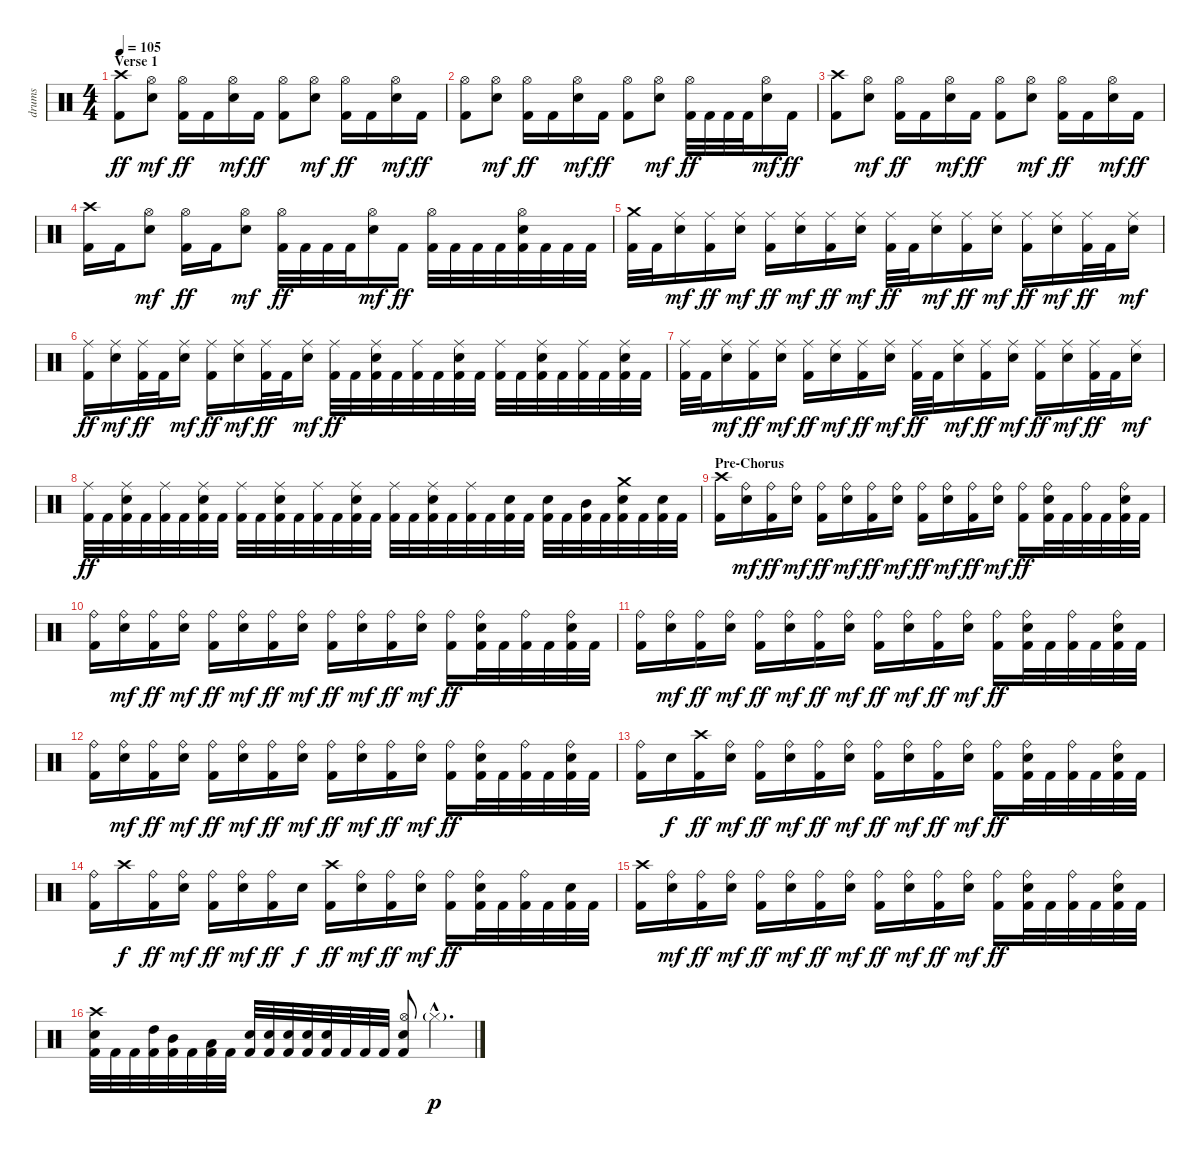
\track ("drums" "drums") {instrument percussion}
\staff {score}
\articulation defaults
\ts (4 4)
\section ("" "Verse 1")
\tempo 105
\clef neutral
\ks c
("Crash high (hit)" "Kick (hit) 2").8{dy ff} ("Hi-Hat (open)" "Snare (hit) 2").8{dy mf} ("Hi-Hat (open)" "Kick (hit) 2").16{dy ff} "Kick (hit) 2".16 ("Hi-Hat (open)" "Snare (hit) 2").16{dy mf} "Kick (hit) 2".16{dy ff} ("Hi-Hat (open)" "Kick (hit) 2").8 ("Hi-Hat (open)" "Snare (hit) 2").8{dy mf} ("Hi-Hat (open)" "Kick (hit) 2").16{dy ff} "Kick (hit) 2".16 ("Hi-Hat (open)" "Snare (hit) 2").16{dy mf} "Kick (hit) 2".16{dy ff} |
("Hi-Hat (open)" "Kick (hit) 2").8 ("Hi-Hat (open)" "Snare (hit) 2").8{dy mf} ("Hi-Hat (open)" "Kick (hit) 2").16{dy ff} "Kick (hit) 2".16 ("Hi-Hat (open)" "Snare (hit) 2").16{dy mf} "Kick (hit) 2".16{dy ff} ("Hi-Hat (open)" "Kick (hit) 2").8 ("Hi-Hat (open)" "Snare (hit) 2").8{dy mf} ("Hi-Hat (open)" "Kick (hit) 2").32{dy ff} "Kick (hit) 2".32 "Kick (hit) 2".32 "Kick (hit) 2".32 ("Hi-Hat (open)" "Snare (hit) 2").16{dy mf} "Kick (hit) 2".16{dy ff} |
("Crash high (hit)" "Kick (hit) 2").8 ("Hi-Hat (open)" "Snare (hit) 2").8{dy mf} ("Hi-Hat (open)" "Kick (hit) 2").16{dy ff} "Kick (hit) 2".16 ("Hi-Hat (open)" "Snare (hit) 2").16{dy mf} "Kick (hit) 2".16{dy ff} ("Hi-Hat (open)" "Kick (hit) 2").8 ("Hi-Hat (open)" "Snare (hit) 2").8{dy mf} ("Hi-Hat (open)" "Kick (hit) 2").16{dy ff} "Kick (hit) 2".16 ("Hi-Hat (open)" "Snare (hit) 2").16{dy mf} "Kick (hit) 2".16{dy ff} |
("Crash high (hit)" "Kick (hit) 2").16 "Kick (hit) 2".16 ("Hi-Hat (open)" "Snare (hit) 2").8{dy mf} ("Hi-Hat (open)" "Kick (hit) 2").16{dy ff} "Kick (hit) 2".16 ("Hi-Hat (open)" "Snare (hit) 2").8{dy mf} ("Hi-Hat (open)" "Kick (hit) 2").32{dy ff} "Kick (hit) 2".32 "Kick (hit) 2".32 "Kick (hit) 2".32 ("Hi-Hat (open)" "Snare (hit) 2").16{dy mf} "Kick (hit) 2".16{dy ff} ("Hi-Hat (open)" "Kick (hit) 2").32 "Kick (hit) 2".32 "Kick (hit) 2".32 "Kick (hit) 2".32 ("Hi-Hat (open)" "Snare (hit) 2" "Kick (hit) 2").32 "Kick (hit) 2".32 "Kick (hit) 2".32 "Kick (hit) 2".32 |
\section ("" "")
("Crash medium (hit)" "Kick (hit) 2").32 "Kick (hit) 2".32 ("Ride (middle)" "Snare (hit) 2").16{dy mf} ("Ride (middle)" "Kick (hit) 2").16{dy ff} ("Ride (middle)" "Snare (hit) 2").16{dy mf} ("Ride (middle)" "Kick (hit) 2").16{dy ff} ("Ride (middle)" "Snare (hit) 2").16{dy mf} ("Ride (middle)" "Kick (hit) 2").16{dy ff} ("Ride (middle)" "Snare (hit) 2").16{dy mf} ("Ride (middle)" "Kick (hit) 2").32{dy ff} "Kick (hit) 2".32 ("Ride (middle)" "Snare (hit) 2").16{dy mf} ("Ride (middle)" "Kick (hit) 2").16{dy ff} ("Ride (middle)" "Snare (hit) 2").16{dy mf} ("Ride (middle)" "Kick (hit) 2").16{dy ff} ("Ride (middle)" "Snare (hit) 2").16{dy mf} ("Ride (middle)" "Kick (hit) 2").32{dy ff} "Kick (hit) 2".32 ("Ride (middle)" "Snare (hit) 2").16{dy mf} |
("Ride (middle)" "Kick (hit) 2").16{dy ff} ("Ride (middle)" "Snare (hit) 2").16{dy mf} ("Ride (middle)" "Kick (hit) 2").32{dy ff} "Kick (hit) 2".32 ("Ride (middle)" "Snare (hit) 2").16{dy mf} ("Ride (middle)" "Kick (hit) 2").16{dy ff} ("Ride (middle)" "Snare (hit) 2").16{dy mf} ("Ride (middle)" "Kick (hit) 2").32{dy ff} "Kick (hit) 2".32 ("Ride (middle)" "Snare (hit) 2").16{dy mf} ("Ride (middle)" "Kick (hit) 2").32{dy ff} "Kick (hit) 2".32 ("Ride (middle)" "Snare (hit) 2" "Kick (hit) 2").32 "Kick (hit) 2".32 ("Ride (middle)" "Kick (hit) 2").32 "Kick (hit) 2".32 ("Ride (middle)" "Snare (hit) 2" "Kick (hit) 2").32 "Kick (hit) 2".32 ("Ride (middle)" "Kick (hit) 2").32 "Kick (hit) 2".32 ("Ride (middle)" "Snare (hit) 2" "Kick (hit) 2").32 "Kick (hit) 2".32 ("Ride (middle)" "Kick (hit) 2").32 "Kick (hit) 2".32 ("Ride (middle)" "Snare (hit) 2" "Kick (hit) 2").32 "Kick (hit) 2".32 |
("Ride (middle)" "Kick (hit) 2").32 "Kick (hit) 2".32 ("Ride (middle)" "Snare (hit) 2").16{dy mf} ("Ride (middle)" "Kick (hit) 2").16{dy ff} ("Ride (middle)" "Snare (hit) 2").16{dy mf} ("Ride (middle)" "Kick (hit) 2").16{dy ff} ("Ride (middle)" "Snare (hit) 2").16{dy mf} ("Ride (middle)" "Kick (hit) 2").16{dy ff} ("Ride (middle)" "Snare (hit) 2").16{dy mf} ("Ride (middle)" "Kick (hit) 2").32{dy ff} "Kick (hit) 2".32 ("Ride (middle)" "Snare (hit) 2").16{dy mf} ("Ride (middle)" "Kick (hit) 2").16{dy ff} ("Ride (middle)" "Snare (hit) 2").16{dy mf} ("Ride (middle)" "Kick (hit) 2").16{dy ff} ("Ride (middle)" "Snare (hit) 2").16{dy mf} ("Ride (middle)" "Kick (hit) 2").32{dy ff} "Kick (hit) 2".32 ("Ride (middle)" "Snare (hit) 2").16{dy mf} |
("Ride (middle)" "Kick (hit) 2").32{dy ff} "Kick (hit) 2".32 ("Ride (middle)" "Snare (hit) 2" "Kick (hit) 2").32 "Kick (hit) 2".32 ("Ride (middle)" "Kick (hit) 2").32 "Kick (hit) 2".32 ("Ride (middle)" "Snare (hit) 2" "Kick (hit) 2").32 "Kick (hit) 2".32 ("Ride (middle)" "Kick (hit) 2").32 "Kick (hit) 2".32 ("Ride (middle)" "Snare (hit) 2" "Kick (hit) 2").32 "Kick (hit) 2".32 ("Ride (middle)" "Kick (hit) 2").32 "Kick (hit) 2".32 ("Ride (middle)" "Snare (hit) 2" "Kick (hit) 2").32 "Kick (hit) 2".32 ("Ride (middle)" "Kick (hit) 2").32 "Kick (hit) 2".32 ("Ride (middle)" "Snare (hit) 2" "Kick (hit) 2").32 "Kick (hit) 2".32 ("Ride (middle)" "Kick (hit) 2").32 "Kick (hit) 2".32 ("Snare (hit) 2" "Kick (hit) 2").32 "Kick (hit) 2".32 ("Snare (hit) 2" "Kick (hit) 2").32 "Kick (hit) 2".32 ("Mid Tom (hit)" "Kick (hit) 2").32 "Kick (hit) 2".32 ("Crash medium (hit)" "Snare (hit) 2" "Kick (hit) 2").32 "Kick (hit) 2".32 ("Snare (hit) 2" "Kick (hit) 2").32 "Kick (hit) 2".32 |
\section ("" "Pre-Chorus")
("Crash high (hit)" "Kick (hit) 2").16 ("Ride (bell)" "Snare (hit) 2").16{dy mf} ("Ride (bell)" "Kick (hit) 2").16{dy ff} ("Ride (bell)" "Snare (hit) 2").16{dy mf} ("Ride (bell)" "Kick (hit) 2").16{dy ff} ("Ride (bell)" "Snare (hit) 2").16{dy mf} ("Ride (bell)" "Kick (hit) 2").16{dy ff} ("Ride (bell)" "Snare (hit) 2").16{dy mf} ("Ride (bell)" "Kick (hit) 2").16{dy ff} ("Ride (bell)" "Snare (hit) 2").16{dy mf} ("Ride (bell)" "Kick (hit) 2").16{dy ff} ("Ride (bell)" "Snare (hit) 2").16{dy mf} ("Ride (bell)" "Kick (hit) 2").16{dy ff} ("Ride (bell)" "Snare (hit) 2" "Kick (hit) 2").32 "Kick (hit) 2".32 ("Ride (bell)" "Kick (hit) 2").32 "Kick (hit) 2".32 ("Ride (bell)" "Snare (hit) 2" "Kick (hit) 2").32 "Kick (hit) 2".32 |
("Ride (bell)" "Kick (hit) 2").16 ("Ride (bell)" "Snare (hit) 2").16{dy mf} ("Ride (bell)" "Kick (hit) 2").16{dy ff} ("Ride (bell)" "Snare (hit) 2").16{dy mf} ("Ride (bell)" "Kick (hit) 2").16{dy ff} ("Ride (bell)" "Snare (hit) 2").16{dy mf} ("Ride (bell)" "Kick (hit) 2").16{dy ff} ("Ride (bell)" "Snare (hit) 2").16{dy mf} ("Ride (bell)" "Kick (hit) 2").16{dy ff} ("Ride (bell)" "Snare (hit) 2").16{dy mf} ("Ride (bell)" "Kick (hit) 2").16{dy ff} ("Ride (bell)" "Snare (hit) 2").16{dy mf} ("Ride (bell)" "Kick (hit) 2").16{dy ff} ("Ride (bell)" "Snare (hit) 2" "Kick (hit) 2").32 "Kick (hit) 2".32 ("Ride (bell)" "Kick (hit) 2").32 "Kick (hit) 2".32 ("Ride (bell)" "Snare (hit) 2" "Kick (hit) 2").32 "Kick (hit) 2".32 |
("Ride (bell)" "Kick (hit) 2").16 ("Ride (bell)" "Snare (hit) 2").16{dy mf} ("Ride (bell)" "Kick (hit) 2").16{dy ff} ("Ride (bell)" "Snare (hit) 2").16{dy mf} ("Ride (bell)" "Kick (hit) 2").16{dy ff} ("Ride (bell)" "Snare (hit) 2").16{dy mf} ("Ride (bell)" "Kick (hit) 2").16{dy ff} ("Ride (bell)" "Snare (hit) 2").16{dy mf} ("Ride (bell)" "Kick (hit) 2").16{dy ff} ("Ride (bell)" "Snare (hit) 2").16{dy mf} ("Ride (bell)" "Kick (hit) 2").16{dy ff} ("Ride (bell)" "Snare (hit) 2").16{dy mf} ("Ride (bell)" "Kick (hit) 2").16{dy ff} ("Ride (bell)" "Snare (hit) 2" "Kick (hit) 2").32 "Kick (hit) 2".32 ("Ride (bell)" "Kick (hit) 2").32 "Kick (hit) 2".32 ("Ride (bell)" "Snare (hit) 2" "Kick (hit) 2").32 "Kick (hit) 2".32 |
("Ride (bell)" "Kick (hit) 2").16 ("Ride (bell)" "Snare (hit) 2").16{dy mf} ("Ride (bell)" "Kick (hit) 2").16{dy ff} ("Ride (bell)" "Snare (hit) 2").16{dy mf} ("Ride (bell)" "Kick (hit) 2").16{dy ff} ("Ride (bell)" "Snare (hit) 2").16{dy mf} ("Ride (bell)" "Kick (hit) 2").16{dy ff} ("Ride (bell)" "Snare (hit) 2").16{dy mf} ("Ride (bell)" "Kick (hit) 2").16{dy ff} ("Ride (bell)" "Snare (hit) 2").16{dy mf} ("Ride (bell)" "Kick (hit) 2").16{dy ff} ("Ride (bell)" "Snare (hit) 2").16{dy mf} ("Ride (bell)" "Kick (hit) 2").16{dy ff} ("Ride (bell)" "Snare (hit) 2" "Kick (hit) 2").32 "Kick (hit) 2".32 ("Ride (bell)" "Kick (hit) 2").32 "Kick (hit) 2".32 ("Ride (bell)" "Snare (hit) 2" "Kick (hit) 2").32 "Kick (hit) 2".32 |
("Ride (bell)" "Kick (hit) 2").16 "Snare (hit) 2".16{dy f} ("Crash high (hit)" "Kick (hit) 2").16{dy ff} ("Ride (bell)" "Snare (hit) 2").16{dy mf} ("Ride (bell)" "Kick (hit) 2").16{dy ff} ("Ride (bell)" "Snare (hit) 2").16{dy mf} ("Ride (bell)" "Kick (hit) 2").16{dy ff} ("Ride (bell)" "Snare (hit) 2").16{dy mf} ("Ride (bell)" "Kick (hit) 2").16{dy ff} ("Ride (bell)" "Snare (hit) 2").16{dy mf} ("Ride (bell)" "Kick (hit) 2").16{dy ff} ("Ride (bell)" "Snare (hit) 2").16{dy mf} ("Ride (bell)" "Kick (hit) 2").16{dy ff} ("Ride (bell)" "Snare (hit) 2" "Kick (hit) 2").32 "Kick (hit) 2".32 ("Ride (bell)" "Kick (hit) 2").32 "Kick (hit) 2".32 ("Ride (bell)" "Snare (hit) 2" "Kick (hit) 2").32 "Kick (hit) 2".32 |
("Ride (bell)" "Kick (hit) 2").16 "Crash high (hit)".16{dy f} ("Ride (bell)" "Kick (hit) 2").16{dy ff} ("Ride (bell)" "Snare (hit) 2").16{dy mf} ("Ride (bell)" "Kick (hit) 2").16{dy ff} ("Ride (bell)" "Snare (hit) 2").16{dy mf} ("Ride (bell)" "Kick (hit) 2").16{dy ff} "Snare (hit) 2".16{dy f} ("Crash high (hit)" "Kick (hit) 2").16{dy ff} ("Ride (bell)" "Snare (hit) 2").16{dy mf} ("Ride (bell)" "Kick (hit) 2").16{dy ff} ("Ride (bell)" "Snare (hit) 2").16{dy mf} ("Ride (bell)" "Kick (hit) 2").16{dy ff} ("Ride (bell)" "Snare (hit) 2" "Kick (hit) 2").32 "Kick (hit) 2".32 ("Ride (bell)" "Kick (hit) 2").32 "Kick (hit) 2".32 ("Snare (hit) 2" "Kick (hit) 2").32 "Kick (hit) 2".32 |
("Crash high (hit)" "Kick (hit) 2").16 ("Ride (bell)" "Snare (hit) 2").16{dy mf} ("Ride (bell)" "Kick (hit) 2").16{dy ff} ("Ride (bell)" "Snare (hit) 2").16{dy mf} ("Ride (bell)" "Kick (hit) 2").16{dy ff} ("Ride (bell)" "Snare (hit) 2").16{dy mf} ("Ride (bell)" "Kick (hit) 2").16{dy ff} ("Ride (bell)" "Snare (hit) 2").16{dy mf} ("Ride (bell)" "Kick (hit) 2").16{dy ff} ("Ride (bell)" "Snare (hit) 2").16{dy mf} ("Ride (bell)" "Kick (hit) 2").16{dy ff} ("Ride (bell)" "Snare (hit) 2").16{dy mf} ("Ride (bell)" "Kick (hit) 2").16{dy ff} ("Ride (bell)" "Snare (hit) 2" "Kick (hit) 2").32 "Kick (hit) 2".32 ("Ride (bell)" "Kick (hit) 2").32 "Kick (hit) 2".32 ("Ride (bell)" "Snare (hit) 2" "Kick (hit) 2").32 "Kick (hit) 2".32 |
("Crash high (hit)" "Snare (hit) 2" "Kick (hit) 2").32 "Kick (hit) 2".32 "Kick (hit) 2".32 ("High Tom (hit)" "Kick (hit) 2").32 ("Mid Tom (hit)" "Kick (hit) 2").32 "Kick (hit) 2".32 ("Low Tom (hit)" "Kick (hit) 2").32 "Kick (hit) 2".32 ("Snare (hit) 2" "Kick (hit) 2").32 ("Snare (hit) 2" "Kick (hit) 2").32 ("Snare (hit) 2" "Kick (hit) 2").32 ("Snare (hit) 2" "Kick (hit) 2").32 ("Snare (hit) 2" "Kick (hit) 2").32 "Kick (hit) 2".32 "Kick (hit) 2".32 "Kick (hit) 2".32 ("Hi-Hat (open)" "Snare (hit) 2" "Kick (hit) 2").8 "Hi-Hat (closed)"{g hac}.4{d dy p}
